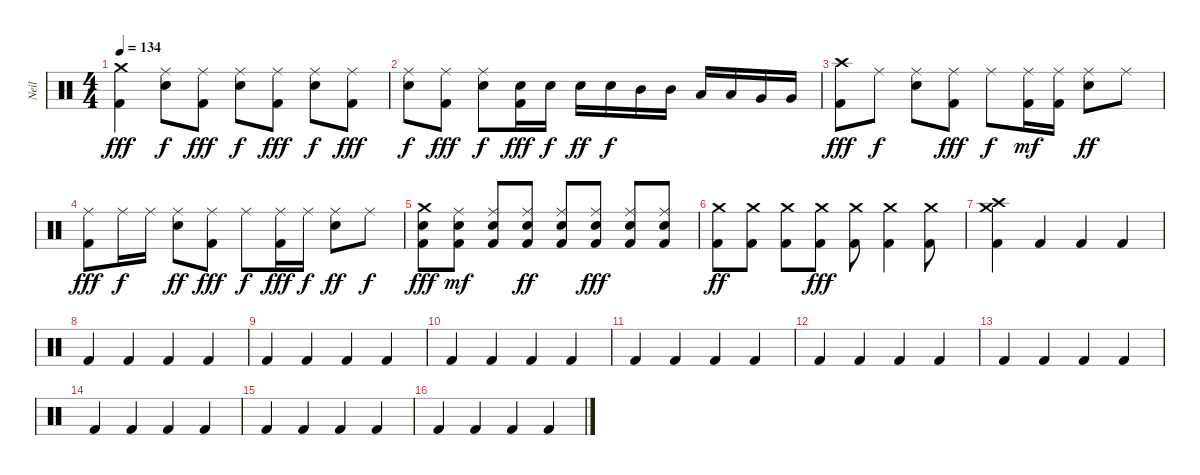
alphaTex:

\track ("Neil" "Neil") {instrument percussion}
\staff {score}
\articulation defaults
\ts (4 4)
\tempo 134
\clef neutral
\ks c
("Crash medium (hit)" "Kick (hit) 2").4{dy fff} ("Ride (middle)" "Snare (hit) 2").8{dy f} ("Ride (middle)" "Kick (hit) 2").8{dy fff} ("Ride (middle)" "Snare (hit) 2").8{dy f} ("Ride (middle)" "Kick (hit) 2").8{dy fff} ("Ride (middle)" "Snare (hit) 2").8{dy f} ("Ride (middle)" "Kick (hit) 2").8{dy fff} |
("Ride (middle)" "Snare (hit) 2").8{dy f} ("Ride (middle)" "Kick (hit) 2").8{dy fff} ("Ride (middle)" "Snare (hit) 2").8{dy f} ("Snare (hit) 2" "Kick (hit) 2").16{dy fff} "Snare (hit) 2".16{dy f} "Snare (hit) 2".16{dy ff} "Snare (hit) 2".16{dy f} "Mid Tom (hit)".16 "Mid Tom (hit)".16 "Low Tom (hit)".16 "Low Tom (hit)".16 "Very Low Tom (hit)".16 "Very Low Tom (hit)".16 |
("Crash high (hit)" "Kick (hit) 2").8{dy fff} "Ride (middle)".8{dy f} ("Ride (middle)" "Snare (hit) 2").8 ("Ride (middle)" "Kick (hit) 2").8{dy fff} "Ride (middle)".8{dy f} ("Ride (middle)" "Kick (hit) 2").16{dy mf} ("Ride (middle)" "Kick (hit) 2").16 ("Ride (middle)" "Snare (hit) 2").8{dy ff} "Ride (middle)".8 |
("Kick (hit) 2" "Ride (middle)").8{dy fff} "Ride (middle)".16{dy f} "Ride (middle)".16 ("Snare (hit) 2" "Ride (middle)").8{dy ff} ("Ride (middle)" "Kick (hit) 2").8{dy fff} "Ride (middle)".8{dy f} ("Ride (middle)" "Kick (hit) 2").16{dy fff} "Ride (middle)".16{dy f} ("Ride (middle)" "Snare (hit) 2").8{dy ff} "Ride (middle)".8{dy f} |
("Crash medium (hit)" "Snare (hit) 2" "Kick (hit) 2").8{dy fff} ("Snare (hit) 2" "Ride (middle)" "Kick (hit) 2").8{dy mf} ("Snare (hit) 2" "Ride (middle)" "Kick (hit) 2").8 ("Snare (hit) 2" "Ride (middle)" "Kick (hit) 2").8{dy ff} ("Snare (hit) 2" "Ride (middle)" "Kick (hit) 2").8 ("Snare (hit) 2" "Ride (middle)" "Kick (hit) 2").8{dy fff} ("Snare (hit) 2" "Ride (middle)" "Kick (hit) 2").8 ("Snare (hit) 2" "Ride (middle)" "Kick (hit) 2").8 |
("Crash medium (hit)" "Kick (hit) 2").8{dy ff} ("Crash medium (hit)" "Kick (hit) 2").8 ("Crash medium (hit)" "Kick (hit) 2").8 ("Crash medium (hit)" "Kick (hit) 2").8{dy fff} ("Crash medium (hit)" "Kick (hit) 2").8 ("Crash medium (hit)" "Kick (hit) 2").4 ("Crash medium (hit)" "Kick (hit) 2").8 |
("Crash medium (hit)" "Crash high (hit)" "Kick (hit) 2").4 "Kick (hit) 2".4 "Kick (hit) 2".4 "Kick (hit) 2".4 |
"Kick (hit) 2".4 "Kick (hit) 2".4 "Kick (hit) 2".4 "Kick (hit) 2".4 |
"Kick (hit) 2".4 "Kick (hit) 2".4 "Kick (hit) 2".4 "Kick (hit) 2".4 |
"Kick (hit) 2".4 "Kick (hit) 2".4 "Kick (hit) 2".4 "Kick (hit) 2".4 |
"Kick (hit) 2".4 "Kick (hit) 2".4 "Kick (hit) 2".4 "Kick (hit) 2".4 |
"Kick (hit) 2".4 "Kick (hit) 2".4 "Kick (hit) 2".4 "Kick (hit) 2".4 |
"Kick (hit) 2".4 "Kick (hit) 2".4 "Kick (hit) 2".4 "Kick (hit) 2".4 |
"Kick (hit) 2".4 "Kick (hit) 2".4 "Kick (hit) 2".4 "Kick (hit) 2".4 |
"Kick (hit) 2".4 "Kick (hit) 2".4 "Kick (hit) 2".4 "Kick (hit) 2".4 |
"Kick (hit) 2".4 "Kick (hit) 2".4 "Kick (hit) 2".4 "Kick (hit) 2".4
